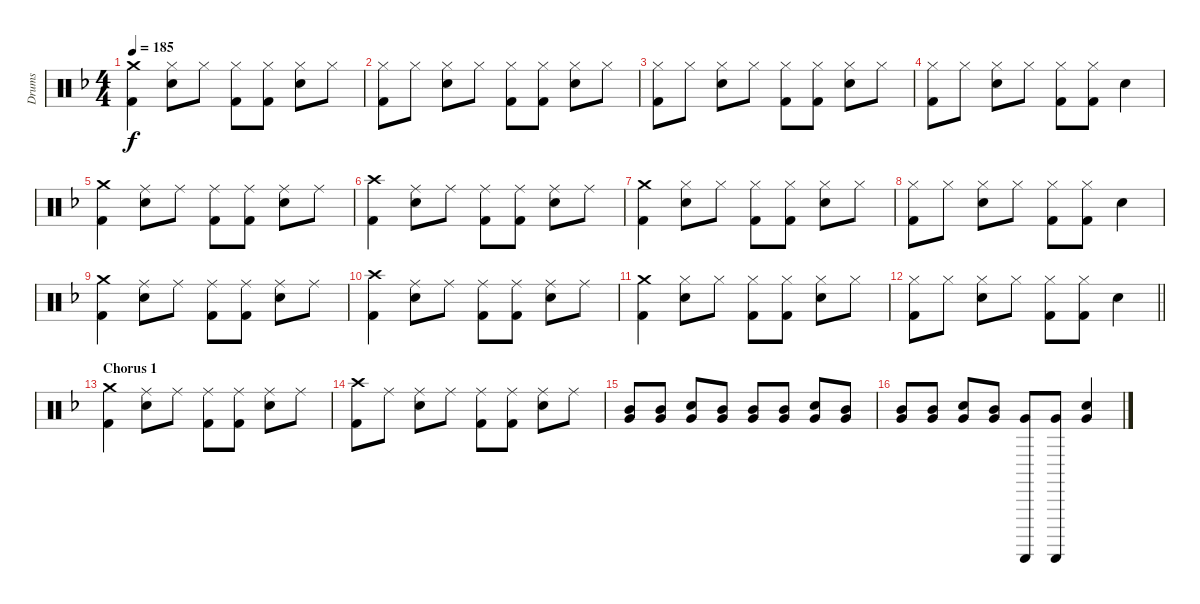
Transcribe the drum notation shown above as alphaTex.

\track ("Drums" "Drums") {instrument percussion}
\staff {score}
\articulation defaults
\ts (4 4)
\tempo 185
\clef neutral
\ks f
("Crash medium (hit)" "Kick (hit) 2").4{dy f} ("Hi-Hat (closed)" "Snare (hit) 2").8 "Hi-Hat (closed)".8 ("Hi-Hat (closed)" "Kick (hit) 2").8 ("Hi-Hat (closed)" "Kick (hit) 2").8 ("Hi-Hat (closed)" "Snare (hit) 2").8 "Hi-Hat (closed)".8 |
("Hi-Hat (closed)" "Kick (hit) 2").8 "Hi-Hat (closed)".8 ("Hi-Hat (closed)" "Snare (hit) 2").8 "Hi-Hat (closed)".8 ("Hi-Hat (closed)" "Kick (hit) 2").8 ("Hi-Hat (closed)" "Kick (hit) 2").8 ("Hi-Hat (closed)" "Snare (hit) 2").8 "Hi-Hat (closed)".8 |
("Hi-Hat (closed)" "Kick (hit) 2").8 "Hi-Hat (closed)".8 ("Hi-Hat (closed)" "Snare (hit) 2").8 "Hi-Hat (closed)".8 ("Hi-Hat (closed)" "Kick (hit) 2").8 ("Hi-Hat (closed)" "Kick (hit) 2").8 ("Hi-Hat (closed)" "Snare (hit) 2").8 "Hi-Hat (closed)".8 |
("Hi-Hat (closed)" "Kick (hit) 2").8 "Hi-Hat (closed)".8 ("Hi-Hat (closed)" "Snare (hit) 2").8 "Hi-Hat (closed)".8 ("Hi-Hat (closed)" "Kick (hit) 2").8 ("Hi-Hat (closed)" "Kick (hit) 2").8 "Snare (hit) 2".4 |
("Kick (hit) 2" "Crash medium (hit)").4 ("Ride (middle)" "Snare (hit) 2").8 "Ride (middle)".8 ("Ride (middle)" "Kick (hit) 2").8 ("Ride (middle)" "Kick (hit) 2").8 ("Ride (middle)" "Snare (hit) 2").8 "Ride (middle)".8 |
("Kick (hit) 2" "Crash high (hit)").4 ("Ride (middle)" "Snare (hit) 2").8 "Ride (middle)".8 ("Ride (middle)" "Kick (hit) 2").8 ("Ride (middle)" "Kick (hit) 2").8 ("Ride (middle)" "Snare (hit) 2").8 "Ride (middle)".8 |
("Kick (hit) 2" "Crash medium (hit)").4 ("Hi-Hat (closed)" "Snare (hit) 2").8 "Hi-Hat (closed)".8 ("Hi-Hat (closed)" "Kick (hit) 2").8 ("Hi-Hat (closed)" "Kick (hit) 2").8 ("Hi-Hat (closed)" "Snare (hit) 2").8 "Hi-Hat (closed)".8 |
("Hi-Hat (closed)" "Kick (hit) 2").8 "Hi-Hat (closed)".8 ("Hi-Hat (closed)" "Snare (hit) 2").8 "Hi-Hat (closed)".8 ("Hi-Hat (closed)" "Kick (hit) 2").8 ("Hi-Hat (closed)" "Kick (hit) 2").8 "Snare (hit) 2".4 |
("Kick (hit) 2" "Crash medium (hit)").4 ("Ride (middle)" "Snare (hit) 2").8 "Ride (middle)".8 ("Ride (middle)" "Kick (hit) 2").8 ("Ride (middle)" "Kick (hit) 2").8 ("Ride (middle)" "Snare (hit) 2").8 "Ride (middle)".8 |
("Kick (hit) 2" "Crash high (hit)").4 ("Ride (middle)" "Snare (hit) 2").8 "Ride (middle)".8 ("Ride (middle)" "Kick (hit) 2").8 ("Ride (middle)" "Kick (hit) 2").8 ("Ride (middle)" "Snare (hit) 2").8 "Ride (middle)".8 |
("Kick (hit) 2" "Crash medium (hit)").4 ("Hi-Hat (closed)" "Snare (hit) 2").8 "Hi-Hat (closed)".8 ("Hi-Hat (closed)" "Kick (hit) 2").8 ("Hi-Hat (closed)" "Kick (hit) 2").8 ("Hi-Hat (closed)" "Snare (hit) 2").8 "Hi-Hat (closed)".8 |
\barLineRight lightlight
("Hi-Hat (closed)" "Kick (hit) 2").8 "Hi-Hat (closed)".8 ("Hi-Hat (closed)" "Snare (hit) 2").8 "Hi-Hat (closed)".8 ("Hi-Hat (closed)" "Kick (hit) 2").8 ("Hi-Hat (closed)" "Kick (hit) 2").8 "Snare (hit) 2".4 |
\section ("" "Chorus 1")
("Crash medium (hit)" "Kick (hit) 2").4 ("Ride (middle)" "Snare (hit) 2").8 "Ride (middle)".8 ("Ride (middle)" "Kick (hit) 2").8 ("Ride (middle)" "Kick (hit) 2").8 ("Ride (middle)" "Snare (hit) 2").8 "Ride (middle)".8 |
("Crash high (hit)" "Kick (hit) 2").8 "Ride (middle)".8 ("Ride (middle)" "Snare (hit) 2").8 "Ride (middle)".8 ("Ride (middle)" "Kick (hit) 2").8 ("Ride (middle)" "Kick (hit) 2").8 ("Ride (middle)" "Snare (hit) 2").8 "Ride (middle)".8 |
("Very Low Tom (hit)" "Mid Tom (hit)").8 ("Very Low Tom (hit)" "Mid Tom (hit)").8 ("Very Low Tom (hit)" "Snare (hit) 2").8 ("Very Low Tom (hit)" "Mid Tom (hit)").8 ("Very Low Tom (hit)" "Mid Tom (hit)").8 ("Very Low Tom (hit)" "Mid Tom (hit)").8 ("Very Low Tom (hit)" "Snare (hit) 2").8 ("Very Low Tom (hit)" "Mid Tom (hit)").8 |
("Very Low Tom (hit)" "Mid Tom (hit)").8 ("Very Low Tom (hit)" "Mid Tom (hit)").8 ("Very Low Tom (hit)" "Snare (hit) 2").8 ("Very Low Tom (hit)" "Mid Tom (hit)").8 ("Very Low Tom (hit)" "Guiro (scrap-return)").8 ("Very Low Tom (hit)" "Guiro (scrap-return)").8 ("Very Low Tom (hit)" "Snare (hit) 2").4
